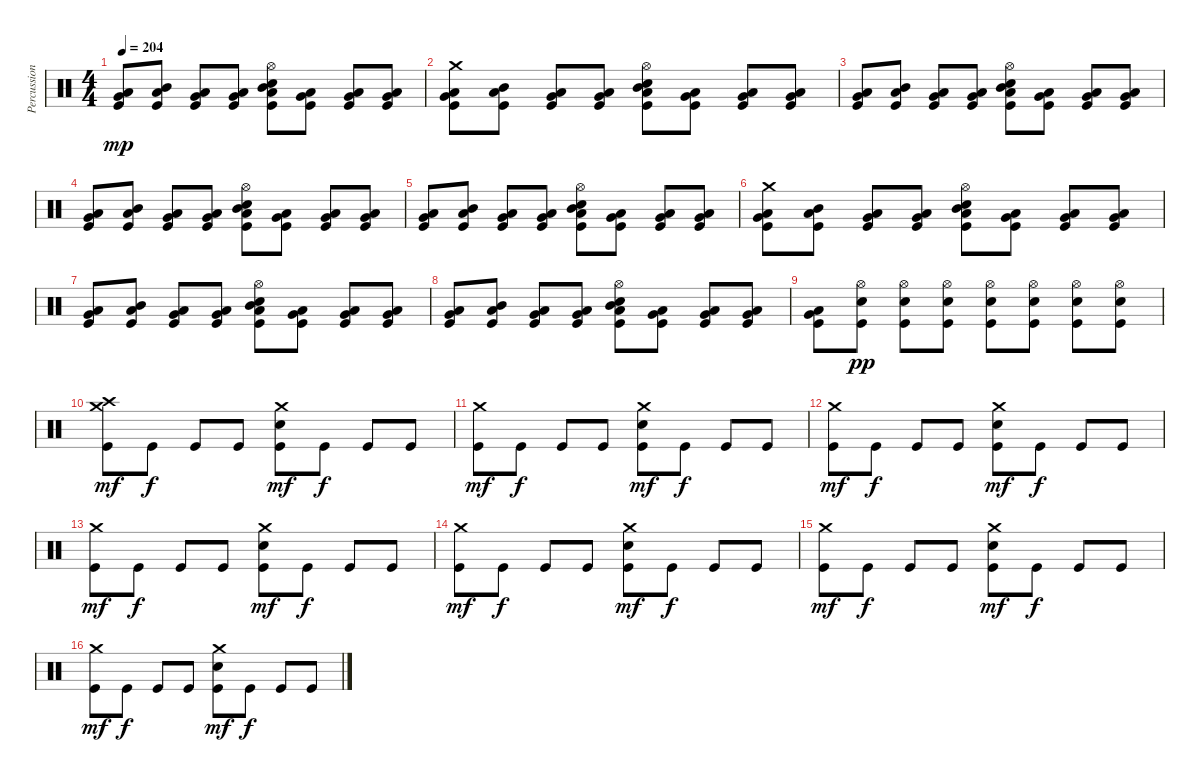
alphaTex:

\track ("Percussions" "Percussion") {instrument percussion}
\staff {score}
\articulation defaults
\ts (4 4)
\tempo 204
\clef neutral
\ks c
("Kick (hit)" "Very Low Tom (hit)" "Low Tom (hit)").8{dy mp} ("Kick (hit)" "Low Tom (hit)" "Mid Tom (hit)").8 ("Kick (hit)" "Very Low Tom (hit)" "Low Tom (hit)").8 ("Kick (hit)" "Low Floor Tom (hit)" "Very Low Tom (hit)").8 ("Kick (hit)" "Electric Snare (hit)" "Low Tom (hit)" "Mid Tom (hit)" "Hi-Hat (open)").8 ("Kick (hit)" "Very Low Tom (hit)" "Low Tom (hit)").8 ("Kick (hit)" "Low Floor Tom (hit)" "Very Low Tom (hit)").8 ("Kick (hit)" "Very Low Tom (hit)" "Low Tom (hit)").8 |
("Kick (hit)" "Very Low Tom (hit)" "Low Tom (hit)" "Crash medium (hit)").8 ("Kick (hit)" "Low Tom (hit)" "Mid Tom (hit)").8 ("Kick (hit)" "Very Low Tom (hit)" "Low Tom (hit)").8 ("Kick (hit)" "Low Floor Tom (hit)" "Very Low Tom (hit)").8 ("Kick (hit)" "Electric Snare (hit)" "Low Tom (hit)" "Mid Tom (hit)" "Hi-Hat (open)").8 ("Kick (hit)" "Very Low Tom (hit)" "Low Tom (hit)").8 ("Kick (hit)" "Low Floor Tom (hit)" "Very Low Tom (hit)").8 ("Kick (hit)" "Very Low Tom (hit)" "Low Tom (hit)").8 |
("Kick (hit)" "Very Low Tom (hit)" "Low Tom (hit)").8 ("Kick (hit)" "Low Tom (hit)" "Mid Tom (hit)").8 ("Kick (hit)" "Very Low Tom (hit)" "Low Tom (hit)").8 ("Kick (hit)" "Low Floor Tom (hit)" "Very Low Tom (hit)").8 ("Kick (hit)" "Electric Snare (hit)" "Low Tom (hit)" "Mid Tom (hit)" "Hi-Hat (open)").8 ("Kick (hit)" "Very Low Tom (hit)" "Low Tom (hit)").8 ("Kick (hit)" "Low Floor Tom (hit)" "Very Low Tom (hit)").8 ("Kick (hit)" "Very Low Tom (hit)" "Low Tom (hit)").8 |
("Kick (hit)" "Very Low Tom (hit)" "Low Tom (hit)").8 ("Kick (hit)" "Low Tom (hit)" "Mid Tom (hit)").8 ("Kick (hit)" "Very Low Tom (hit)" "Low Tom (hit)").8 ("Kick (hit)" "Low Floor Tom (hit)" "Very Low Tom (hit)").8 ("Kick (hit)" "Electric Snare (hit)" "Low Tom (hit)" "Mid Tom (hit)" "Hi-Hat (open)").8 ("Kick (hit)" "Very Low Tom (hit)" "Low Tom (hit)").8 ("Kick (hit)" "Low Floor Tom (hit)" "Very Low Tom (hit)").8 ("Kick (hit)" "Very Low Tom (hit)" "Low Tom (hit)").8 |
("Kick (hit)" "Very Low Tom (hit)" "Low Tom (hit)").8 ("Kick (hit)" "Low Tom (hit)" "Mid Tom (hit)").8 ("Kick (hit)" "Very Low Tom (hit)" "Low Tom (hit)").8 ("Kick (hit)" "Low Floor Tom (hit)" "Very Low Tom (hit)").8 ("Kick (hit)" "Electric Snare (hit)" "Low Tom (hit)" "Mid Tom (hit)" "Hi-Hat (open)").8 ("Kick (hit)" "Very Low Tom (hit)" "Low Tom (hit)").8 ("Kick (hit)" "Low Floor Tom (hit)" "Very Low Tom (hit)").8 ("Kick (hit)" "Very Low Tom (hit)" "Low Tom (hit)").8 |
("Kick (hit)" "Very Low Tom (hit)" "Low Tom (hit)" "Crash medium (hit)").8 ("Kick (hit)" "Low Tom (hit)" "Mid Tom (hit)").8 ("Kick (hit)" "Very Low Tom (hit)" "Low Tom (hit)").8 ("Kick (hit)" "Low Floor Tom (hit)" "Very Low Tom (hit)").8 ("Kick (hit)" "Electric Snare (hit)" "Low Tom (hit)" "Mid Tom (hit)" "Hi-Hat (open)").8 ("Kick (hit)" "Very Low Tom (hit)" "Low Tom (hit)").8 ("Kick (hit)" "Low Floor Tom (hit)" "Very Low Tom (hit)").8 ("Kick (hit)" "Very Low Tom (hit)" "Low Tom (hit)").8 |
("Kick (hit)" "Very Low Tom (hit)" "Low Tom (hit)").8 ("Kick (hit)" "Low Tom (hit)" "Mid Tom (hit)").8 ("Kick (hit)" "Very Low Tom (hit)" "Low Tom (hit)").8 ("Kick (hit)" "Low Floor Tom (hit)" "Very Low Tom (hit)").8 ("Kick (hit)" "Electric Snare (hit)" "Low Tom (hit)" "Mid Tom (hit)" "Hi-Hat (open)").8 ("Kick (hit)" "Very Low Tom (hit)" "Low Tom (hit)").8 ("Kick (hit)" "Low Floor Tom (hit)" "Very Low Tom (hit)").8 ("Kick (hit)" "Very Low Tom (hit)" "Low Tom (hit)").8 |
("Kick (hit)" "Very Low Tom (hit)" "Low Tom (hit)").8 ("Kick (hit)" "Low Tom (hit)" "Mid Tom (hit)").8 ("Kick (hit)" "Very Low Tom (hit)" "Low Tom (hit)").8 ("Kick (hit)" "Low Floor Tom (hit)" "Very Low Tom (hit)").8 ("Kick (hit)" "Electric Snare (hit)" "Low Tom (hit)" "Mid Tom (hit)" "Hi-Hat (open)").8 ("Kick (hit)" "Very Low Tom (hit)" "Low Tom (hit)").8 ("Kick (hit)" "Low Floor Tom (hit)" "Very Low Tom (hit)").8 ("Kick (hit)" "Very Low Tom (hit)" "Low Tom (hit)").8 |
("Kick (hit)" "Very Low Tom (hit)" "Low Tom (hit)").8 ("Kick (hit)" "Electric Snare (hit)" "Hi-Hat (open)").8{dy pp} ("Kick (hit)" "Electric Snare (hit)" "Hi-Hat (open)").8 ("Kick (hit)" "Electric Snare (hit)" "Hi-Hat (open)").8 ("Kick (hit)" "Electric Snare (hit)" "Hi-Hat (open)").8 ("Kick (hit)" "Electric Snare (hit)" "Hi-Hat (open)").8 ("Kick (hit)" "Electric Snare (hit)" "Hi-Hat (open)").8 ("Kick (hit)" "Electric Snare (hit)" "Hi-Hat (open)").8 |
("Kick (hit)" "Crash medium (hit)" "Crash high (hit)").8{dy mf} "Kick (hit)".8{dy f} "Kick (hit)".8 "Kick (hit)".8 ("Kick (hit)" "Electric Snare (hit)" "Crash medium (hit)").8{dy mf} "Kick (hit)".8{dy f} "Kick (hit)".8 "Kick (hit)".8 |
("Kick (hit)" "Crash medium (hit)").8{dy mf} "Kick (hit)".8{dy f} "Kick (hit)".8 "Kick (hit)".8 ("Kick (hit)" "Electric Snare (hit)" "Crash medium (hit)").8{dy mf} "Kick (hit)".8{dy f} "Kick (hit)".8 "Kick (hit)".8 |
("Kick (hit)" "Crash medium (hit)").8{dy mf} "Kick (hit)".8{dy f} "Kick (hit)".8 "Kick (hit)".8 ("Kick (hit)" "Electric Snare (hit)" "Crash medium (hit)").8{dy mf} "Kick (hit)".8{dy f} "Kick (hit)".8 "Kick (hit)".8 |
("Kick (hit)" "Crash medium (hit)").8{dy mf} "Kick (hit)".8{dy f} "Kick (hit)".8 "Kick (hit)".8 ("Kick (hit)" "Electric Snare (hit)" "Crash medium (hit)").8{dy mf} "Kick (hit)".8{dy f} "Kick (hit)".8 "Kick (hit)".8 |
("Kick (hit)" "Crash medium (hit)").8{dy mf} "Kick (hit)".8{dy f} "Kick (hit)".8 "Kick (hit)".8 ("Kick (hit)" "Electric Snare (hit)" "Crash medium (hit)").8{dy mf} "Kick (hit)".8{dy f} "Kick (hit)".8 "Kick (hit)".8 |
("Kick (hit)" "Crash medium (hit)").8{dy mf} "Kick (hit)".8{dy f} "Kick (hit)".8 "Kick (hit)".8 ("Kick (hit)" "Electric Snare (hit)" "Crash medium (hit)").8{dy mf} "Kick (hit)".8{dy f} "Kick (hit)".8 "Kick (hit)".8 |
("Kick (hit)" "Crash medium (hit)").8{dy mf} "Kick (hit)".8{dy f} "Kick (hit)".8 "Kick (hit)".8 ("Kick (hit)" "Electric Snare (hit)" "Crash medium (hit)").8{dy mf} "Kick (hit)".8{dy f} "Kick (hit)".8 "Kick (hit)".8
